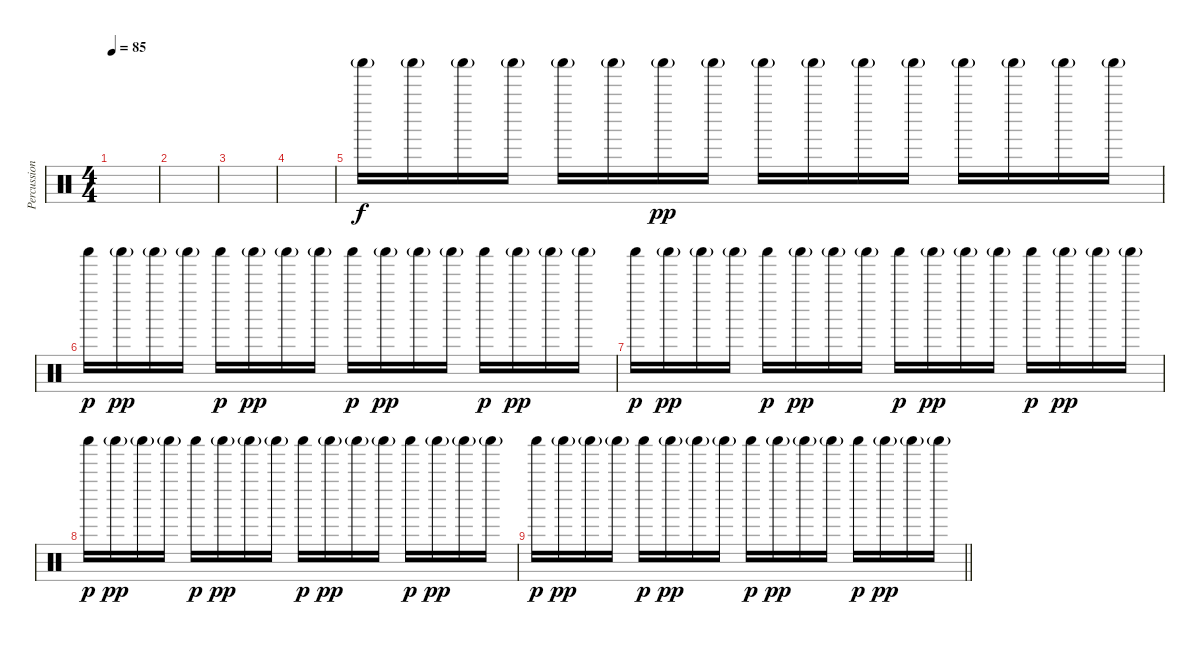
\track ("Percussions" "Percussion") {instrument percussion}
\staff {score}
\articulation defaults
\ts (4 4)
\tempo 85
\clef neutral
\ks c
|
|
|
|
"Shaker (hit)"{g}.16 "Shaker (hit)"{g}.16 "Shaker (hit)"{g}.16 "Shaker (hit)"{g}.16 "Shaker (hit)"{g}.16 "Shaker (hit)"{g}.16 "Shaker (hit)"{g}.16{dy pp} "Shaker (hit)"{g}.16 "Shaker (hit)"{g}.16 "Shaker (hit)"{g}.16 "Shaker (hit)"{g}.16 "Shaker (hit)"{g}.16 "Shaker (hit)"{g}.16 "Shaker (hit)"{g}.16 "Shaker (hit)"{g}.16 "Shaker (hit)"{g}.16 |
"Shaker (hit)".16{dy p} "Shaker (hit)"{g}.16{dy pp} "Shaker (hit)"{g}.16 "Shaker (hit)"{g}.16 "Shaker (hit)".16{dy p} "Shaker (hit)"{g}.16{dy pp} "Shaker (hit)"{g}.16 "Shaker (hit)"{g}.16 "Shaker (hit)".16{dy p} "Shaker (hit)"{g}.16{dy pp} "Shaker (hit)"{g}.16 "Shaker (hit)"{g}.16 "Shaker (hit)".16{dy p} "Shaker (hit)"{g}.16{dy pp} "Shaker (hit)"{g}.16 "Shaker (hit)"{g}.16 |
"Shaker (hit)".16{dy p} "Shaker (hit)"{g}.16{dy pp} "Shaker (hit)"{g}.16 "Shaker (hit)"{g}.16 "Shaker (hit)".16{dy p} "Shaker (hit)"{g}.16{dy pp} "Shaker (hit)"{g}.16 "Shaker (hit)"{g}.16 "Shaker (hit)".16{dy p} "Shaker (hit)"{g}.16{dy pp} "Shaker (hit)"{g}.16 "Shaker (hit)"{g}.16 "Shaker (hit)".16{dy p} "Shaker (hit)"{g}.16{dy pp} "Shaker (hit)"{g}.16 "Shaker (hit)"{g}.16 |
"Shaker (hit)".16{dy p} "Shaker (hit)"{g}.16{dy pp} "Shaker (hit)"{g}.16 "Shaker (hit)"{g}.16 "Shaker (hit)".16{dy p} "Shaker (hit)"{g}.16{dy pp} "Shaker (hit)"{g}.16 "Shaker (hit)"{g}.16 "Shaker (hit)".16{dy p} "Shaker (hit)"{g}.16{dy pp} "Shaker (hit)"{g}.16 "Shaker (hit)"{g}.16 "Shaker (hit)".16{dy p} "Shaker (hit)"{g}.16{dy pp} "Shaker (hit)"{g}.16 "Shaker (hit)"{g}.16 |
\barLineRight lightlight "Shaker (hit)".16{dy p} "Shaker (hit)"{g}.16{dy pp} "Shaker (hit)"{g}.16 "Shaker (hit)"{g}.16 "Shaker (hit)".16{dy p} "Shaker (hit)"{g}.16{dy pp} "Shaker (hit)"{g}.16 "Shaker (hit)"{g}.16 "Shaker (hit)".16{dy p} "Shaker (hit)"{g}.16{dy pp} "Shaker (hit)"{g}.16 "Shaker (hit)"{g}.16 "Shaker (hit)".16{dy p} "Shaker (hit)"{g}.16{dy pp} "Shaker (hit)"{g}.16 "Shaker (hit)"{g}.16
